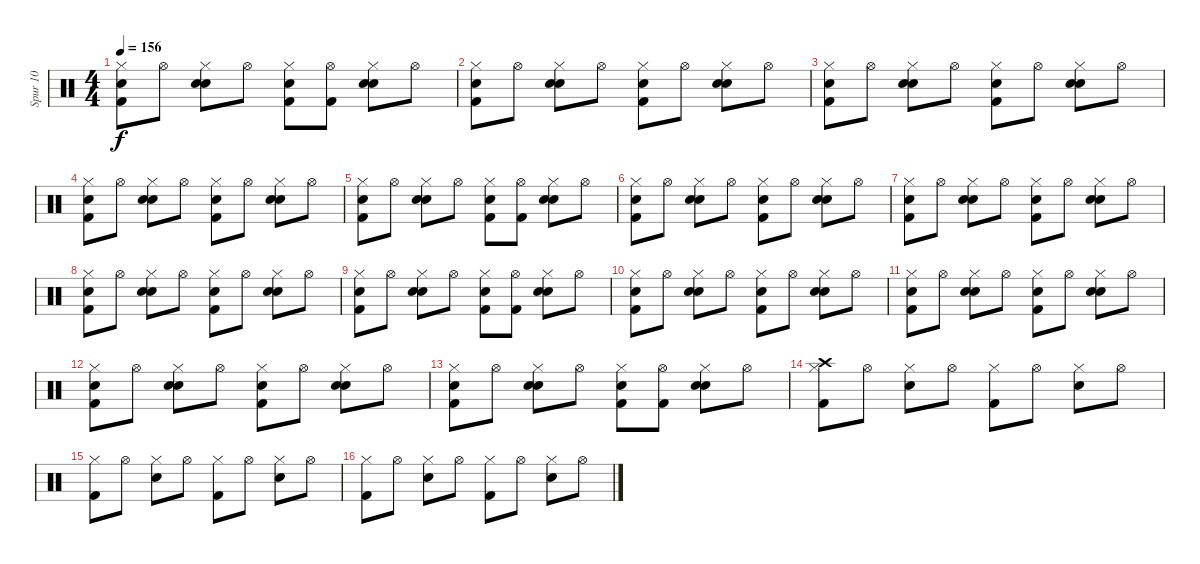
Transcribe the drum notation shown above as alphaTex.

\track ("Spur 10" "Spur 10") {instrument percussion}
\staff {score}
\articulation defaults
\ts (4 4)
\tempo 156
\clef neutral
\ks c
("Hi-Hat (closed)" "Kick (hit) 2" "Hand Clap (hit)").8{dy f} "Hi-Hat (open)".8 ("Hi-Hat (closed)" "Electric Snare (hit)" "Hand Clap (hit)").8 "Hi-Hat (open)".8 ("Hi-Hat (closed)" "Kick (hit) 2" "Hand Clap (hit)").8 ("Hi-Hat (open)" "Kick (hit) 2").8 ("Hi-Hat (closed)" "Electric Snare (hit)" "Hand Clap (hit)").8 "Hi-Hat (open)".8 |
("Hi-Hat (closed)" "Kick (hit) 2" "Hand Clap (hit)").8 "Hi-Hat (open)".8 ("Hi-Hat (closed)" "Electric Snare (hit)" "Hand Clap (hit)").8 "Hi-Hat (open)".8 ("Hi-Hat (closed)" "Kick (hit) 2" "Hand Clap (hit)").8 "Hi-Hat (open)".8 ("Hi-Hat (closed)" "Electric Snare (hit)" "Hand Clap (hit)").8 "Hi-Hat (open)".8 |
("Hi-Hat (closed)" "Kick (hit) 2" "Hand Clap (hit)").8 "Hi-Hat (open)".8 ("Hi-Hat (closed)" "Electric Snare (hit)" "Hand Clap (hit)").8 "Hi-Hat (open)".8 ("Hi-Hat (closed)" "Kick (hit) 2" "Hand Clap (hit)").8 "Hi-Hat (open)".8 ("Hi-Hat (closed)" "Electric Snare (hit)" "Hand Clap (hit)").8 "Hi-Hat (open)".8 |
("Hi-Hat (closed)" "Kick (hit) 2" "Hand Clap (hit)").8 "Hi-Hat (open)".8 ("Hi-Hat (closed)" "Electric Snare (hit)" "Hand Clap (hit)").8 "Hi-Hat (open)".8 ("Hi-Hat (closed)" "Kick (hit) 2" "Hand Clap (hit)").8 "Hi-Hat (open)".8 ("Hi-Hat (closed)" "Electric Snare (hit)" "Hand Clap (hit)").8 "Hi-Hat (open)".8 |
("Hi-Hat (closed)" "Kick (hit) 2" "Hand Clap (hit)").8 "Hi-Hat (open)".8 ("Hi-Hat (closed)" "Electric Snare (hit)" "Hand Clap (hit)").8 "Hi-Hat (open)".8 ("Hi-Hat (closed)" "Kick (hit) 2" "Hand Clap (hit)").8 ("Hi-Hat (open)" "Kick (hit) 2").8 ("Hi-Hat (closed)" "Electric Snare (hit)" "Hand Clap (hit)").8 "Hi-Hat (open)".8 |
("Hi-Hat (closed)" "Kick (hit) 2" "Hand Clap (hit)").8 "Hi-Hat (open)".8 ("Hi-Hat (closed)" "Electric Snare (hit)" "Hand Clap (hit)").8 "Hi-Hat (open)".8 ("Hi-Hat (closed)" "Kick (hit) 2" "Hand Clap (hit)").8 "Hi-Hat (open)".8 ("Hi-Hat (closed)" "Electric Snare (hit)" "Hand Clap (hit)").8 "Hi-Hat (open)".8 |
("Hi-Hat (closed)" "Kick (hit) 2" "Hand Clap (hit)").8 "Hi-Hat (open)".8 ("Hi-Hat (closed)" "Electric Snare (hit)" "Hand Clap (hit)").8 "Hi-Hat (open)".8 ("Hi-Hat (closed)" "Kick (hit) 2" "Hand Clap (hit)").8 "Hi-Hat (open)".8 ("Hi-Hat (closed)" "Electric Snare (hit)" "Hand Clap (hit)").8 "Hi-Hat (open)".8 |
("Hi-Hat (closed)" "Kick (hit) 2" "Hand Clap (hit)").8 "Hi-Hat (open)".8 ("Hi-Hat (closed)" "Electric Snare (hit)" "Hand Clap (hit)").8 "Hi-Hat (open)".8 ("Hi-Hat (closed)" "Kick (hit) 2" "Hand Clap (hit)").8 "Hi-Hat (open)".8 ("Hi-Hat (closed)" "Electric Snare (hit)" "Hand Clap (hit)").8 "Hi-Hat (open)".8 |
("Hi-Hat (closed)" "Kick (hit) 2" "Hand Clap (hit)").8 "Hi-Hat (open)".8 ("Hi-Hat (closed)" "Electric Snare (hit)" "Hand Clap (hit)").8 "Hi-Hat (open)".8 ("Hi-Hat (closed)" "Kick (hit) 2" "Hand Clap (hit)").8 ("Hi-Hat (open)" "Kick (hit) 2").8 ("Hi-Hat (closed)" "Electric Snare (hit)" "Hand Clap (hit)").8 "Hi-Hat (open)".8 |
("Hi-Hat (closed)" "Kick (hit) 2" "Hand Clap (hit)").8 "Hi-Hat (open)".8 ("Hi-Hat (closed)" "Electric Snare (hit)" "Hand Clap (hit)").8 "Hi-Hat (open)".8 ("Hi-Hat (closed)" "Kick (hit) 2" "Hand Clap (hit)").8 "Hi-Hat (open)".8 ("Hi-Hat (closed)" "Electric Snare (hit)" "Hand Clap (hit)").8 "Hi-Hat (open)".8 |
("Hi-Hat (closed)" "Kick (hit) 2" "Hand Clap (hit)").8 "Hi-Hat (open)".8 ("Hi-Hat (closed)" "Electric Snare (hit)" "Hand Clap (hit)").8 "Hi-Hat (open)".8 ("Hi-Hat (closed)" "Kick (hit) 2" "Hand Clap (hit)").8 "Hi-Hat (open)".8 ("Hi-Hat (closed)" "Electric Snare (hit)" "Hand Clap (hit)").8 "Hi-Hat (open)".8 |
("Hi-Hat (closed)" "Kick (hit) 2" "Hand Clap (hit)").8 "Hi-Hat (open)".8 ("Hi-Hat (closed)" "Electric Snare (hit)" "Hand Clap (hit)").8 "Hi-Hat (open)".8 ("Hi-Hat (closed)" "Kick (hit) 2" "Hand Clap (hit)").8 "Hi-Hat (open)".8 ("Hi-Hat (closed)" "Electric Snare (hit)" "Hand Clap (hit)").8 "Hi-Hat (open)".8 |
("Hi-Hat (closed)" "Kick (hit) 2" "Hand Clap (hit)").8 "Hi-Hat (open)".8 ("Hi-Hat (closed)" "Electric Snare (hit)" "Hand Clap (hit)").8 "Hi-Hat (open)".8 ("Hi-Hat (closed)" "Kick (hit) 2" "Hand Clap (hit)").8 ("Hi-Hat (open)" "Kick (hit) 2").8 ("Hi-Hat (closed)" "Electric Snare (hit)" "Hand Clap (hit)").8 "Hi-Hat (open)".8 |
("Hi-Hat (closed)" "Kick (hit) 2" "Crash high (hit)").8 "Hi-Hat (open)".8 ("Hi-Hat (closed)" "Electric Snare (hit)").8 "Hi-Hat (open)".8 ("Hi-Hat (closed)" "Kick (hit) 2").8 "Hi-Hat (open)".8 ("Hi-Hat (closed)" "Electric Snare (hit)").8 "Hi-Hat (open)".8 |
("Hi-Hat (closed)" "Kick (hit) 2").8 "Hi-Hat (open)".8 ("Hi-Hat (closed)" "Electric Snare (hit)").8 "Hi-Hat (open)".8 ("Hi-Hat (closed)" "Kick (hit) 2").8 "Hi-Hat (open)".8 ("Hi-Hat (closed)" "Electric Snare (hit)").8 "Hi-Hat (open)".8 |
("Hi-Hat (closed)" "Kick (hit) 2").8 "Hi-Hat (open)".8 ("Hi-Hat (closed)" "Electric Snare (hit)").8 "Hi-Hat (open)".8 ("Hi-Hat (closed)" "Kick (hit) 2").8 "Hi-Hat (open)".8 ("Hi-Hat (closed)" "Electric Snare (hit)").8 "Hi-Hat (open)".8
